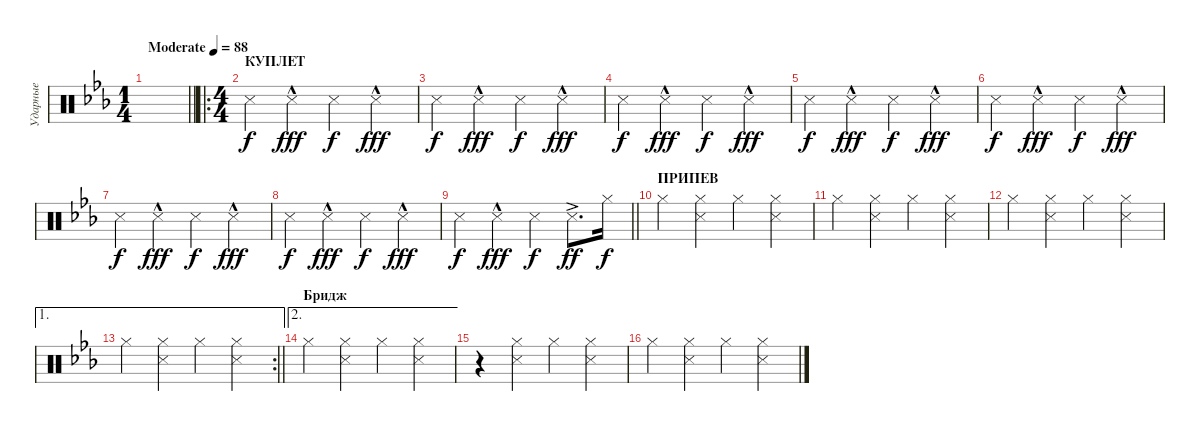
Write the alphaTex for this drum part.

\track ("Ударные" "Ударные") {instrument percussion}
\staff {score}
\articulation defaults
\ts (1 4)
\tempo (88 "Moderate")
\clef neutral
\barLineRight lightlight
\ks cminor
|
\ro
\ts (4 4)
\section ("" "КУПЛЕТ")
"Snare (side stick) 3".4 "Snare (side stick) 3"{hac}.4{dy fff} "Snare (side stick) 3".4{dy f} "Snare (side stick) 3"{hac}.4{dy fff} |
"Snare (side stick) 3".4{dy f} "Snare (side stick) 3"{hac}.4{dy fff} "Snare (side stick) 3".4{dy f} "Snare (side stick) 3"{hac}.4{dy fff} |
"Snare (side stick) 3".4{dy f} "Snare (side stick) 3"{hac}.4{dy fff} "Snare (side stick) 3".4{dy f} "Snare (side stick) 3"{hac}.4{dy fff} |
"Snare (side stick) 3".4{dy f} "Snare (side stick) 3"{hac}.4{dy fff} "Snare (side stick) 3".4{dy f} "Snare (side stick) 3"{hac}.4{dy fff} |
"Snare (side stick) 3".4{dy f} "Snare (side stick) 3"{hac}.4{dy fff} "Snare (side stick) 3".4{dy f} "Snare (side stick) 3"{hac}.4{dy fff} |
"Snare (side stick) 3".4{dy f} "Snare (side stick) 3"{hac}.4{dy fff} "Snare (side stick) 3".4{dy f} "Snare (side stick) 3"{hac}.4{dy fff} |
"Snare (side stick) 3".4{dy f} "Snare (side stick) 3"{hac}.4{dy fff} "Snare (side stick) 3".4{dy f} "Snare (side stick) 3"{hac}.4{dy fff} |
\barLineRight lightlight "Snare (side stick) 3".4{dy f} "Snare (side stick) 3"{hac}.4{dy fff} "Snare (side stick) 3".4{dy f} "Snare (side stick) 3"{ac}.8{d dy ff} "Hi-Hat (closed)".16{dy f}
|
\section ("" "ПРИПЕВ")
"Hi-Hat (closed)".4 ("Hi-Hat (closed)" "Snare (side stick) 3").4 "Hi-Hat (closed)".4 ("Hi-Hat (closed)" "Snare (side stick) 3").4 |
"Hi-Hat (closed)".4 ("Hi-Hat (closed)" "Snare (side stick) 3").4 "Hi-Hat (closed)".4 ("Hi-Hat (closed)" "Snare (side stick) 3").4 |
"Hi-Hat (closed)".4 ("Hi-Hat (closed)" "Snare (side stick) 3").4 "Hi-Hat (closed)".4 ("Hi-Hat (closed)" "Snare (side stick) 3").4 |
\ae 1
\rc 2
\barLineRight lightlight "Hi-Hat (closed)".4
("Hi-Hat (closed)" "Snare (side stick) 3").4 "Hi-Hat (closed)".4 ("Hi-Hat (closed)" "Snare (side stick) 3").4 |
\ae 2
\section ("" "Бридж")
"Hi-Hat (closed)".4 ("Hi-Hat (closed)" "Snare (side stick) 3").4 "Hi-Hat (closed)".4 ("Hi-Hat (closed)" "Snare (side stick) 3").4 |
r.4 ("Hi-Hat (closed)" "Snare (side stick) 3").4 "Hi-Hat (closed)".4 ("Hi-Hat (closed)" "Snare (side stick) 3").4 |
"Hi-Hat (closed)".4 ("Hi-Hat (closed)" "Snare (side stick) 3").4 "Hi-Hat (closed)".4 ("Hi-Hat (closed)" "Snare (side stick) 3").4
